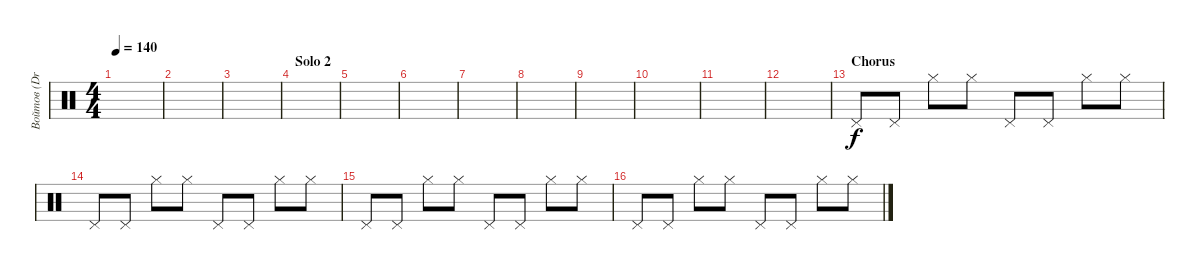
\track ("Войтов (Drums)" "Войтов (Dr") {instrument percussion}
\staff {score}
\articulation defaults
\ts (4 4)
\tempo 140
\clef neutral
\ks c
|
|
|
\section ("" "Solo 2")
|
|
|
|
|
|
|
|
|
\section ("" "Chorus")
"Pedal Hi-Hat (hit)".8 "Pedal Hi-Hat (hit)".8 "Hi-Hat (closed)".8 "Hi-Hat (closed)".8 "Pedal Hi-Hat (hit)".8 "Pedal Hi-Hat (hit)".8 "Hi-Hat (closed)".8 "Hi-Hat (closed)".8 |
"Pedal Hi-Hat (hit)".8 "Pedal Hi-Hat (hit)".8 "Hi-Hat (closed)".8 "Hi-Hat (closed)".8 "Pedal Hi-Hat (hit)".8 "Pedal Hi-Hat (hit)".8 "Hi-Hat (closed)".8 "Hi-Hat (closed)".8 |
"Pedal Hi-Hat (hit)".8 "Pedal Hi-Hat (hit)".8 "Hi-Hat (closed)".8 "Hi-Hat (closed)".8 "Pedal Hi-Hat (hit)".8 "Pedal Hi-Hat (hit)".8 "Hi-Hat (closed)".8 "Hi-Hat (closed)".8 |
"Pedal Hi-Hat (hit)".8 "Pedal Hi-Hat (hit)".8 "Hi-Hat (closed)".8 "Hi-Hat (closed)".8 "Pedal Hi-Hat (hit)".8 "Pedal Hi-Hat (hit)".8 "Hi-Hat (closed)".8 "Hi-Hat (closed)".8
